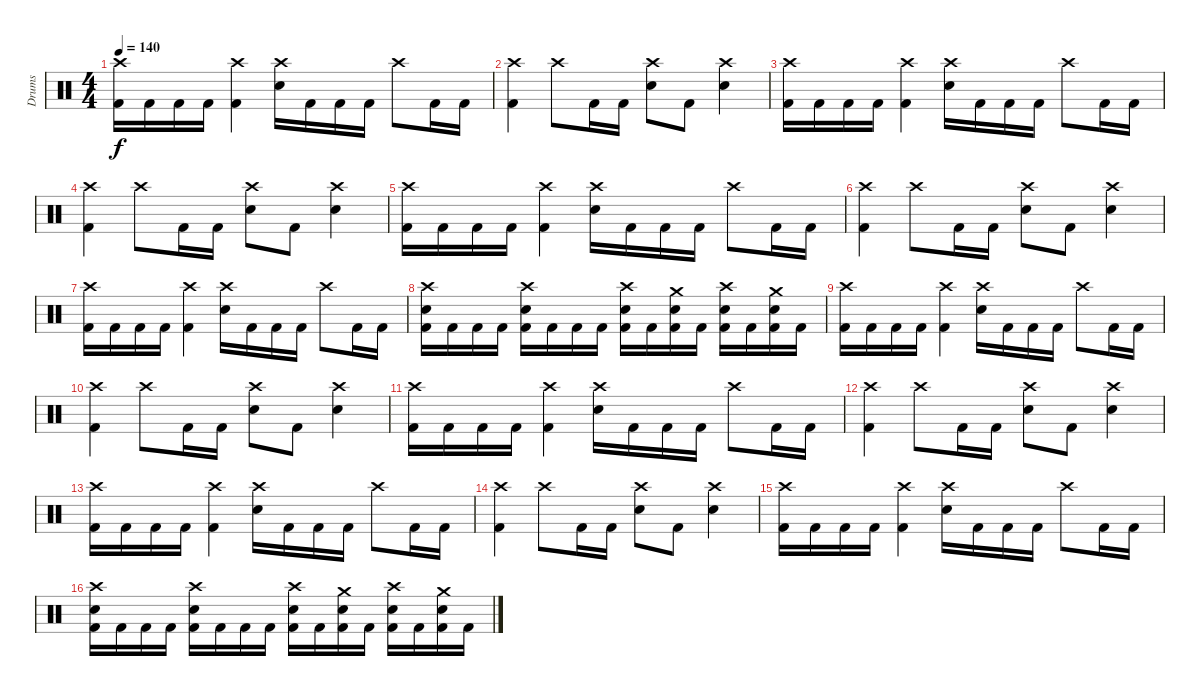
\track ("Drums" "Drums") {instrument percussion}
\staff {score}
\articulation defaults
\ts (4 4)
\tempo 140
\clef neutral
\ks c
("Crash high (hit)" "Kick (hit) 2").16{dy f} "Kick (hit) 2".16 "Kick (hit) 2".16 "Kick (hit) 2".16 ("Crash high (hit)" "Kick (hit) 2").4 ("Crash high (hit)" "Electric Snare (hit)").16 "Kick (hit) 2".16 "Kick (hit) 2".16 "Kick (hit) 2".16 "Crash high (hit)".8 "Kick (hit) 2".16 "Kick (hit) 2".16 |
("Crash high (hit)" "Kick (hit) 2").4 "Crash high (hit)".8 "Kick (hit) 2".16 "Kick (hit) 2".16 ("Crash high (hit)" "Electric Snare (hit)").8 "Kick (hit) 2".8 ("Crash high (hit)" "Electric Snare (hit)").4 |
("Crash high (hit)" "Kick (hit) 2").16 "Kick (hit) 2".16 "Kick (hit) 2".16 "Kick (hit) 2".16 ("Crash high (hit)" "Kick (hit) 2").4 ("Crash high (hit)" "Electric Snare (hit)").16 "Kick (hit) 2".16 "Kick (hit) 2".16 "Kick (hit) 2".16 "Crash high (hit)".8 "Kick (hit) 2".16 "Kick (hit) 2".16 |
("Crash high (hit)" "Kick (hit) 2").4 "Crash high (hit)".8 "Kick (hit) 2".16 "Kick (hit) 2".16 ("Crash high (hit)" "Electric Snare (hit)").8 "Kick (hit) 2".8 ("Crash high (hit)" "Electric Snare (hit)").4 |
("Crash high (hit)" "Kick (hit) 2").16 "Kick (hit) 2".16 "Kick (hit) 2".16 "Kick (hit) 2".16 ("Crash high (hit)" "Kick (hit) 2").4 ("Crash high (hit)" "Electric Snare (hit)").16 "Kick (hit) 2".16 "Kick (hit) 2".16 "Kick (hit) 2".16 "Crash high (hit)".8 "Kick (hit) 2".16 "Kick (hit) 2".16 |
("Crash high (hit)" "Kick (hit) 2").4 "Crash high (hit)".8 "Kick (hit) 2".16 "Kick (hit) 2".16 ("Crash high (hit)" "Electric Snare (hit)").8 "Kick (hit) 2".8 ("Crash high (hit)" "Electric Snare (hit)").4 |
("Crash high (hit)" "Kick (hit) 2").16 "Kick (hit) 2".16 "Kick (hit) 2".16 "Kick (hit) 2".16 ("Crash high (hit)" "Kick (hit) 2").4 ("Crash high (hit)" "Electric Snare (hit)").16 "Kick (hit) 2".16 "Kick (hit) 2".16 "Kick (hit) 2".16 "Crash high (hit)".8 "Kick (hit) 2".16 "Kick (hit) 2".16 |
("Crash high (hit)" "Electric Snare (hit)" "Kick (hit) 2").16 "Kick (hit) 2".16 "Kick (hit) 2".16 "Kick (hit) 2".16 ("Crash high (hit)" "Electric Snare (hit)" "Kick (hit) 2").16 "Kick (hit) 2".16 "Kick (hit) 2".16 "Kick (hit) 2".16 ("Crash high (hit)" "Electric Snare (hit)" "Kick (hit) 2").16 "Kick (hit) 2".16 ("Crash medium (hit)" "Electric Snare (hit)" "Kick (hit) 2").16 "Kick (hit) 2".16 ("Crash high (hit)" "Electric Snare (hit)" "Kick (hit) 2").16 "Kick (hit) 2".16 ("Crash medium (hit)" "Electric Snare (hit)" "Kick (hit) 2").16 "Kick (hit) 2".16 |
("Crash high (hit)" "Kick (hit) 2").16 "Kick (hit) 2".16 "Kick (hit) 2".16 "Kick (hit) 2".16 ("Crash high (hit)" "Kick (hit) 2").4 ("Crash high (hit)" "Electric Snare (hit)").16 "Kick (hit) 2".16 "Kick (hit) 2".16 "Kick (hit) 2".16 "Crash high (hit)".8 "Kick (hit) 2".16 "Kick (hit) 2".16 |
("Crash high (hit)" "Kick (hit) 2").4 "Crash high (hit)".8 "Kick (hit) 2".16 "Kick (hit) 2".16 ("Crash high (hit)" "Electric Snare (hit)").8 "Kick (hit) 2".8 ("Crash high (hit)" "Electric Snare (hit)").4 |
("Crash high (hit)" "Kick (hit) 2").16 "Kick (hit) 2".16 "Kick (hit) 2".16 "Kick (hit) 2".16 ("Crash high (hit)" "Kick (hit) 2").4 ("Crash high (hit)" "Electric Snare (hit)").16 "Kick (hit) 2".16 "Kick (hit) 2".16 "Kick (hit) 2".16 "Crash high (hit)".8 "Kick (hit) 2".16 "Kick (hit) 2".16 |
("Crash high (hit)" "Kick (hit) 2").4 "Crash high (hit)".8 "Kick (hit) 2".16 "Kick (hit) 2".16 ("Crash high (hit)" "Electric Snare (hit)").8 "Kick (hit) 2".8 ("Crash high (hit)" "Electric Snare (hit)").4 |
("Crash high (hit)" "Kick (hit) 2").16 "Kick (hit) 2".16 "Kick (hit) 2".16 "Kick (hit) 2".16 ("Crash high (hit)" "Kick (hit) 2").4 ("Crash high (hit)" "Electric Snare (hit)").16 "Kick (hit) 2".16 "Kick (hit) 2".16 "Kick (hit) 2".16 "Crash high (hit)".8 "Kick (hit) 2".16 "Kick (hit) 2".16 |
("Crash high (hit)" "Kick (hit) 2").4 "Crash high (hit)".8 "Kick (hit) 2".16 "Kick (hit) 2".16 ("Crash high (hit)" "Electric Snare (hit)").8 "Kick (hit) 2".8 ("Crash high (hit)" "Electric Snare (hit)").4 |
("Crash high (hit)" "Kick (hit) 2").16 "Kick (hit) 2".16 "Kick (hit) 2".16 "Kick (hit) 2".16 ("Crash high (hit)" "Kick (hit) 2").4 ("Crash high (hit)" "Electric Snare (hit)").16 "Kick (hit) 2".16 "Kick (hit) 2".16 "Kick (hit) 2".16 "Crash high (hit)".8 "Kick (hit) 2".16 "Kick (hit) 2".16 |
("Crash high (hit)" "Electric Snare (hit)" "Kick (hit) 2").16 "Kick (hit) 2".16 "Kick (hit) 2".16 "Kick (hit) 2".16 ("Crash high (hit)" "Electric Snare (hit)" "Kick (hit) 2").16 "Kick (hit) 2".16 "Kick (hit) 2".16 "Kick (hit) 2".16 ("Crash high (hit)" "Electric Snare (hit)" "Kick (hit) 2").16 "Kick (hit) 2".16 ("Crash medium (hit)" "Electric Snare (hit)" "Kick (hit) 2").16 "Kick (hit) 2".16 ("Crash high (hit)" "Electric Snare (hit)" "Kick (hit) 2").16 "Kick (hit) 2".16 ("Crash medium (hit)" "Electric Snare (hit)" "Kick (hit) 2").16 "Kick (hit) 2".16
